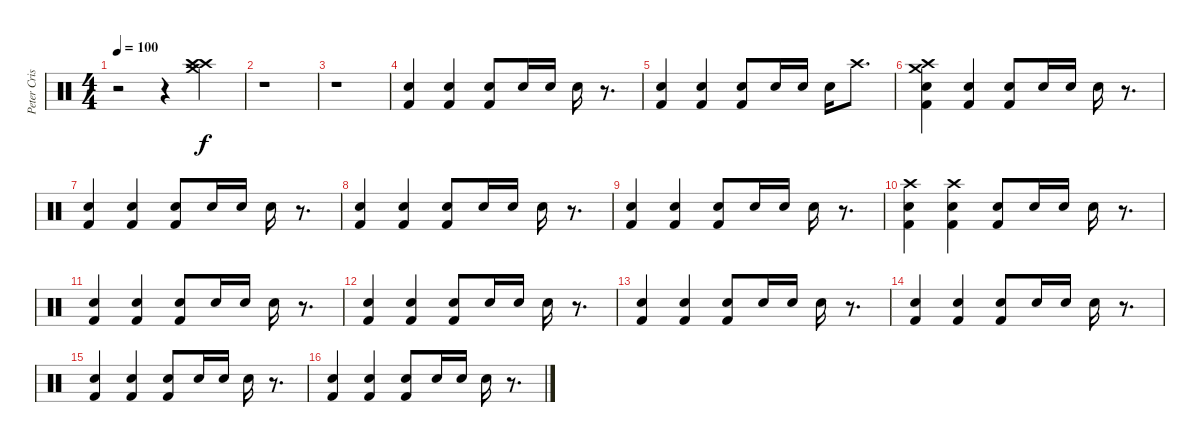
\track ("Peter Criss" "Peter Cris") {instrument percussion}
\staff {score}
\articulation defaults
\ts (4 4)
\tempo 100
\clef neutral
\ks c
r.2{dy f} r.4 ("Crash high (hit)" "Crash medium (hit)" "Crash high (hit)").4 |
r.1 |
r.1 |
("Snare (hit) 2" "Kick (hit) 2").4 ("Snare (hit) 2" "Kick (hit) 2").4 ("Snare (hit) 2" "Kick (hit) 2").8 "Snare (hit) 2".16 "Snare (hit) 2".16 "Snare (hit) 2".16 r.8{d} |
("Snare (hit) 2" "Kick (hit) 2").4 ("Snare (hit) 2" "Kick (hit) 2").4 ("Snare (hit) 2" "Kick (hit) 2").8 "Snare (hit) 2".16 "Snare (hit) 2".16 "Snare (hit) 2".16 "Crash high (hit)".8{d} |
("Crash high (hit)" "Crash medium (hit)" "Snare (hit) 2" "Kick (hit) 2").4 ("Snare (hit) 2" "Kick (hit) 2").4 ("Snare (hit) 2" "Kick (hit) 2").8 "Snare (hit) 2".16 "Snare (hit) 2".16 "Snare (hit) 2".16 r.8{d} |
("Snare (hit) 2" "Kick (hit) 2").4 ("Snare (hit) 2" "Kick (hit) 2").4 ("Snare (hit) 2" "Kick (hit) 2").8 "Snare (hit) 2".16 "Snare (hit) 2".16 "Snare (hit) 2".16 r.8{d} |
("Snare (hit) 2" "Kick (hit) 2").4 ("Snare (hit) 2" "Kick (hit) 2").4 ("Snare (hit) 2" "Kick (hit) 2").8 "Snare (hit) 2".16 "Snare (hit) 2".16 "Snare (hit) 2".16 r.8{d} |
("Snare (hit) 2" "Kick (hit) 2").4 ("Snare (hit) 2" "Kick (hit) 2").4 ("Snare (hit) 2" "Kick (hit) 2").8 "Snare (hit) 2".16 "Snare (hit) 2".16 "Snare (hit) 2".16 r.8{d} |
("Crash high (hit)" "Snare (hit) 2" "Kick (hit) 2").4 ("Crash high (hit)" "Snare (hit) 2" "Kick (hit) 2").4 ("Snare (hit) 2" "Kick (hit) 2").8 "Snare (hit) 2".16 "Snare (hit) 2".16 "Snare (hit) 2".16 r.8{d} |
("Snare (hit) 2" "Kick (hit) 2").4 ("Snare (hit) 2" "Kick (hit) 2").4 ("Snare (hit) 2" "Kick (hit) 2").8 "Snare (hit) 2".16 "Snare (hit) 2".16 "Snare (hit) 2".16 r.8{d} |
("Snare (hit) 2" "Kick (hit) 2").4 ("Snare (hit) 2" "Kick (hit) 2").4 ("Snare (hit) 2" "Kick (hit) 2").8 "Snare (hit) 2".16 "Snare (hit) 2".16 "Snare (hit) 2".16 r.8{d} |
("Snare (hit) 2" "Kick (hit) 2").4 ("Snare (hit) 2" "Kick (hit) 2").4 ("Snare (hit) 2" "Kick (hit) 2").8 "Snare (hit) 2".16 "Snare (hit) 2".16 "Snare (hit) 2".16 r.8{d} |
("Snare (hit) 2" "Kick (hit) 2").4 ("Snare (hit) 2" "Kick (hit) 2").4 ("Snare (hit) 2" "Kick (hit) 2").8 "Snare (hit) 2".16 "Snare (hit) 2".16 "Snare (hit) 2".16 r.8{d} |
("Snare (hit) 2" "Kick (hit) 2").4 ("Snare (hit) 2" "Kick (hit) 2").4 ("Snare (hit) 2" "Kick (hit) 2").8 "Snare (hit) 2".16 "Snare (hit) 2".16 "Snare (hit) 2".16 r.8{d} |
("Snare (hit) 2" "Kick (hit) 2").4 ("Snare (hit) 2" "Kick (hit) 2").4 ("Snare (hit) 2" "Kick (hit) 2").8 "Snare (hit) 2".16 "Snare (hit) 2".16 "Snare (hit) 2".16 r.8{d}
